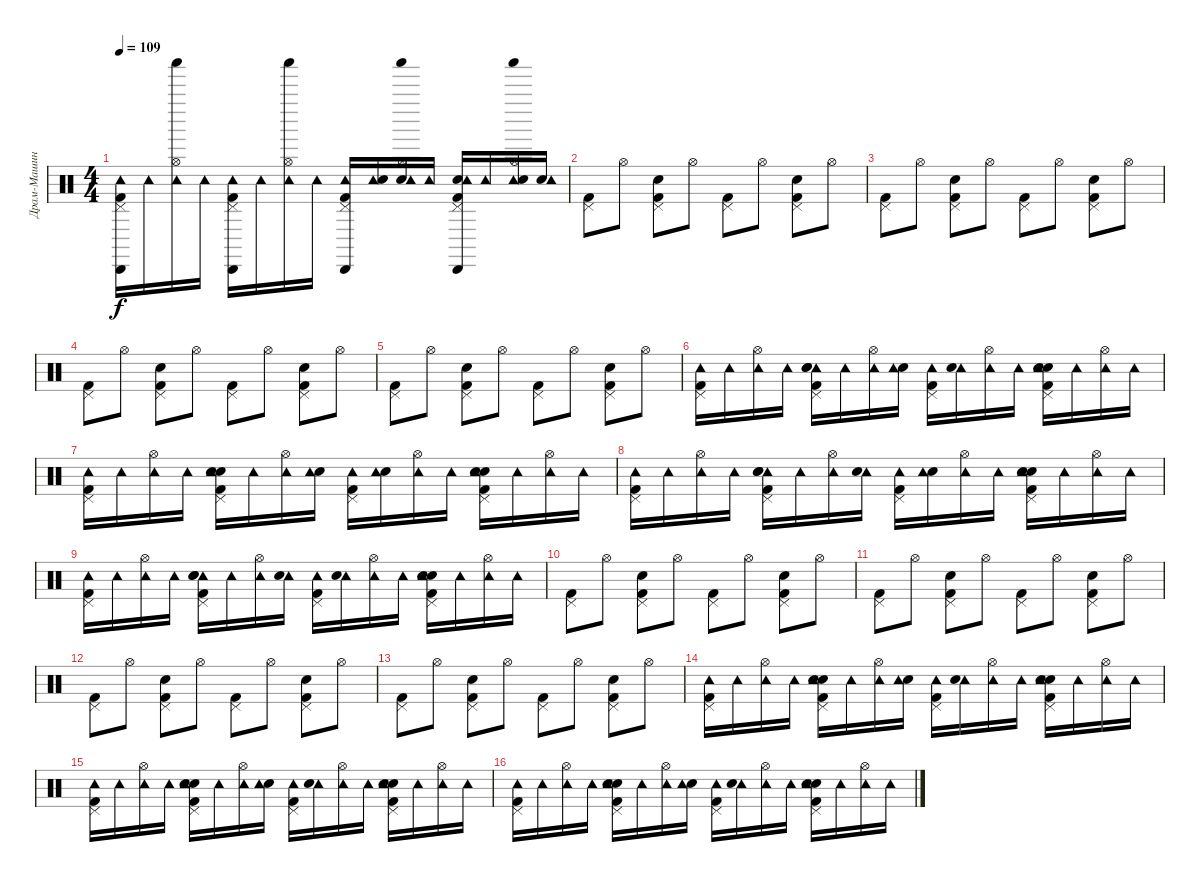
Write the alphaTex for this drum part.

\track ("Драм-Машина" "Драм-Машин") {instrument percussion}
\staff {score}
\articulation defaults
\ts (4 4)
\tempo 109
\clef neutral
\ks c
("Kick (hit) 2" "Cabasa (hit)" "Pedal Hi-Hat (hit)" "Tambourine (hit)").16{dy f} "Tambourine (hit)".16 ("Hi-Hat (open)" "Tambourine (hit)" "Shaker (hit)").16 "Tambourine (hit)".16 ("Pedal Hi-Hat (hit)" "Tambourine (hit)" "Cabasa (hit)" "Kick (hit) 2").16 "Tambourine (hit)".16 ("Hi-Hat (open)" "Tambourine (hit)" "Shaker (hit)").16 "Tambourine (hit)".16 ("Tambourine (hit)" "Pedal Hi-Hat (hit)" "Kick (hit) 2" "Cabasa (hit)").16 ("Tambourine (hit)" "Snare (hit) 2").16 ("Hi-Hat (open)" "Shaker (hit)" "Snare (hit) 2" "Tambourine (hit)").16 "Tambourine (hit)".16 ("Pedal Hi-Hat (hit)" "Snare (hit) 2" "Kick (hit) 2" "Cabasa (hit)" "Tambourine (hit)").16 "Tambourine (hit)".16 ("Tambourine (hit)" "Hi-Hat (open)" "Snare (hit) 2" "Shaker (hit)").16 ("Snare (hit) 2" "Tambourine (hit)").16 |
("Pedal Hi-Hat (hit)" "Kick (hit) 2").8 "Hi-Hat (open)".8 ("Kick (hit) 2" "Pedal Hi-Hat (hit)" "Snare (hit) 2").8 "Hi-Hat (open)".8 ("Kick (hit) 2" "Pedal Hi-Hat (hit)").8 "Hi-Hat (open)".8 ("Kick (hit) 2" "Pedal Hi-Hat (hit)" "Snare (hit) 2").8 "Hi-Hat (open)".8 |
("Pedal Hi-Hat (hit)" "Kick (hit) 2").8 "Hi-Hat (open)".8 ("Kick (hit) 2" "Snare (hit) 2" "Pedal Hi-Hat (hit)").8 "Hi-Hat (open)".8 ("Kick (hit) 2" "Pedal Hi-Hat (hit)").8 "Hi-Hat (open)".8 ("Pedal Hi-Hat (hit)" "Kick (hit) 2" "Snare (hit) 2").8 "Hi-Hat (open)".8 |
("Kick (hit) 2" "Pedal Hi-Hat (hit)").8 "Hi-Hat (open)".8 ("Kick (hit) 2" "Pedal Hi-Hat (hit)" "Snare (hit) 2").8 "Hi-Hat (open)".8 ("Pedal Hi-Hat (hit)" "Kick (hit) 2").8 "Hi-Hat (open)".8 ("Kick (hit) 2" "Pedal Hi-Hat (hit)" "Snare (hit) 2").8 "Hi-Hat (open)".8 |
("Pedal Hi-Hat (hit)" "Kick (hit) 2").8 "Hi-Hat (open)".8 ("Snare (hit) 2" "Pedal Hi-Hat (hit)" "Kick (hit) 2").8 "Hi-Hat (open)".8 ("Pedal Hi-Hat (hit)" "Kick (hit) 2").8 "Hi-Hat (open)".8 ("Pedal Hi-Hat (hit)" "Snare (hit) 2" "Kick (hit) 2").8 "Hi-Hat (open)".8 |
("Pedal Hi-Hat (hit)" "Tambourine (hit)" "Kick (hit) 2").16 "Tambourine (hit)".16 ("Hi-Hat (open)" "Tambourine (hit)").16 "Tambourine (hit)".16 ("Pedal Hi-Hat (hit)" "Kick (hit) 2" "Tambourine (hit)" "Snare (hit) 2" "Electric Snare (hit)").16 "Tambourine (hit)".16 ("Hi-Hat (open)" "Tambourine (hit)").16 ("Electric Snare (hit)" "Tambourine (hit)").16 ("Tambourine (hit)" "Kick (hit) 2" "Pedal Hi-Hat (hit)").16 ("Tambourine (hit)" "Electric Snare (hit)").16 ("Tambourine (hit)" "Hi-Hat (open)").16 "Tambourine (hit)".16 ("Snare (hit) 2" "Kick (hit) 2" "Tambourine (hit)" "Pedal Hi-Hat (hit)" "Electric Snare (hit)").16 "Tambourine (hit)".16 ("Tambourine (hit)" "Hi-Hat (open)").16 "Tambourine (hit)".16 |
("Pedal Hi-Hat (hit)" "Kick (hit) 2" "Tambourine (hit)").16 "Tambourine (hit)".16 ("Tambourine (hit)" "Hi-Hat (open)").16 "Tambourine (hit)".16 ("Snare (hit) 2" "Tambourine (hit)" "Kick (hit) 2" "Electric Snare (hit)" "Pedal Hi-Hat (hit)").16 "Tambourine (hit)".16 ("Hi-Hat (open)" "Tambourine (hit)").16 ("Electric Snare (hit)" "Tambourine (hit)").16 ("Pedal Hi-Hat (hit)" "Tambourine (hit)" "Kick (hit) 2").16 ("Electric Snare (hit)" "Tambourine (hit)").16 ("Tambourine (hit)" "Hi-Hat (open)").16 "Tambourine (hit)".16 ("Kick (hit) 2" "Snare (hit) 2" "Pedal Hi-Hat (hit)" "Electric Snare (hit)" "Tambourine (hit)").16 "Tambourine (hit)".16 ("Tambourine (hit)" "Hi-Hat (open)").16 "Tambourine (hit)".16 |
("Pedal Hi-Hat (hit)" "Tambourine (hit)" "Kick (hit) 2").16 "Tambourine (hit)".16 ("Tambourine (hit)" "Hi-Hat (open)").16 "Tambourine (hit)".16 ("Tambourine (hit)" "Pedal Hi-Hat (hit)" "Electric Snare (hit)" "Kick (hit) 2" "Snare (hit) 2").16 "Tambourine (hit)".16 ("Hi-Hat (open)" "Tambourine (hit)").16 ("Tambourine (hit)" "Electric Snare (hit)").16 ("Tambourine (hit)" "Kick (hit) 2" "Pedal Hi-Hat (hit)").16 ("Electric Snare (hit)" "Tambourine (hit)").16 ("Tambourine (hit)" "Hi-Hat (open)").16 "Tambourine (hit)".16 ("Snare (hit) 2" "Tambourine (hit)" "Electric Snare (hit)" "Pedal Hi-Hat (hit)" "Kick (hit) 2").16 "Tambourine (hit)".16 ("Tambourine (hit)" "Hi-Hat (open)").16 "Tambourine (hit)".16 |
("Pedal Hi-Hat (hit)" "Tambourine (hit)" "Kick (hit) 2").16 "Tambourine (hit)".16 ("Hi-Hat (open)" "Tambourine (hit)").16 "Tambourine (hit)".16 ("Kick (hit) 2" "Tambourine (hit)" "Snare (hit) 2" "Pedal Hi-Hat (hit)" "Electric Snare (hit)").16 "Tambourine (hit)".16 ("Hi-Hat (open)" "Tambourine (hit)").16 ("Tambourine (hit)" "Electric Snare (hit)").16 ("Pedal Hi-Hat (hit)" "Tambourine (hit)" "Kick (hit) 2").16 ("Tambourine (hit)" "Electric Snare (hit)").16 ("Tambourine (hit)" "Hi-Hat (open)").16 "Tambourine (hit)".16 ("Electric Snare (hit)" "Kick (hit) 2" "Pedal Hi-Hat (hit)" "Tambourine (hit)" "Snare (hit) 2").16 "Tambourine (hit)".16 ("Tambourine (hit)" "Hi-Hat (open)").16 "Tambourine (hit)".16 |
("Kick (hit) 2" "Pedal Hi-Hat (hit)").8 "Hi-Hat (open)".8 ("Pedal Hi-Hat (hit)" "Kick (hit) 2" "Snare (hit) 2").8 "Hi-Hat (open)".8 ("Pedal Hi-Hat (hit)" "Kick (hit) 2").8 "Hi-Hat (open)".8 ("Snare (hit) 2" "Pedal Hi-Hat (hit)" "Kick (hit) 2").8 "Hi-Hat (open)".8 |
("Kick (hit) 2" "Pedal Hi-Hat (hit)").8 "Hi-Hat (open)".8 ("Pedal Hi-Hat (hit)" "Kick (hit) 2" "Snare (hit) 2").8 "Hi-Hat (open)".8 ("Kick (hit) 2" "Pedal Hi-Hat (hit)").8 "Hi-Hat (open)".8 ("Kick (hit) 2" "Snare (hit) 2" "Pedal Hi-Hat (hit)").8 "Hi-Hat (open)".8 |
("Kick (hit) 2" "Pedal Hi-Hat (hit)").8 "Hi-Hat (open)".8 ("Snare (hit) 2" "Pedal Hi-Hat (hit)" "Kick (hit) 2").8 "Hi-Hat (open)".8 ("Kick (hit) 2" "Pedal Hi-Hat (hit)").8 "Hi-Hat (open)".8 ("Pedal Hi-Hat (hit)" "Snare (hit) 2" "Kick (hit) 2").8 "Hi-Hat (open)".8 |
("Pedal Hi-Hat (hit)" "Kick (hit) 2").8 "Hi-Hat (open)".8 ("Kick (hit) 2" "Pedal Hi-Hat (hit)" "Snare (hit) 2").8 "Hi-Hat (open)".8 ("Pedal Hi-Hat (hit)" "Kick (hit) 2").8 "Hi-Hat (open)".8 ("Snare (hit) 2" "Pedal Hi-Hat (hit)" "Kick (hit) 2").8 "Hi-Hat (open)".8 |
("Pedal Hi-Hat (hit)" "Tambourine (hit)" "Kick (hit) 2").16 "Tambourine (hit)".16 ("Tambourine (hit)" "Hi-Hat (open)").16 "Tambourine (hit)".16 ("Electric Snare (hit)" "Pedal Hi-Hat (hit)" "Snare (hit) 2" "Tambourine (hit)" "Kick (hit) 2").16 "Tambourine (hit)".16 ("Hi-Hat (open)" "Tambourine (hit)").16 ("Electric Snare (hit)" "Tambourine (hit)").16 ("Tambourine (hit)" "Kick (hit) 2" "Pedal Hi-Hat (hit)").16 ("Tambourine (hit)" "Electric Snare (hit)").16 ("Hi-Hat (open)" "Tambourine (hit)").16 "Tambourine (hit)".16 ("Snare (hit) 2" "Pedal Hi-Hat (hit)" "Electric Snare (hit)" "Tambourine (hit)" "Kick (hit) 2").16 "Tambourine (hit)".16 ("Hi-Hat (open)" "Tambourine (hit)").16 "Tambourine (hit)".16 |
("Pedal Hi-Hat (hit)" "Kick (hit) 2" "Tambourine (hit)").16 "Tambourine (hit)".16 ("Tambourine (hit)" "Hi-Hat (open)").16 "Tambourine (hit)".16 ("Electric Snare (hit)" "Snare (hit) 2" "Tambourine (hit)" "Kick (hit) 2" "Pedal Hi-Hat (hit)").16 "Tambourine (hit)".16 ("Tambourine (hit)" "Hi-Hat (open)").16 ("Electric Snare (hit)" "Tambourine (hit)").16 ("Kick (hit) 2" "Pedal Hi-Hat (hit)" "Tambourine (hit)").16 ("Tambourine (hit)" "Electric Snare (hit)").16 ("Tambourine (hit)" "Hi-Hat (open)").16 "Tambourine (hit)".16 ("Snare (hit) 2" "Kick (hit) 2" "Tambourine (hit)" "Electric Snare (hit)" "Pedal Hi-Hat (hit)").16 "Tambourine (hit)".16 ("Hi-Hat (open)" "Tambourine (hit)").16 "Tambourine (hit)".16 |
("Tambourine (hit)" "Kick (hit) 2" "Pedal Hi-Hat (hit)").16 "Tambourine (hit)".16 ("Tambourine (hit)" "Hi-Hat (open)").16 "Tambourine (hit)".16 ("Electric Snare (hit)" "Kick (hit) 2" "Tambourine (hit)" "Pedal Hi-Hat (hit)" "Snare (hit) 2").16 "Tambourine (hit)".16 ("Tambourine (hit)" "Hi-Hat (open)").16 ("Electric Snare (hit)" "Tambourine (hit)").16 ("Kick (hit) 2" "Pedal Hi-Hat (hit)" "Tambourine (hit)").16 ("Tambourine (hit)" "Electric Snare (hit)").16 ("Tambourine (hit)" "Hi-Hat (open)").16 "Tambourine (hit)".16 ("Kick (hit) 2" "Electric Snare (hit)" "Snare (hit) 2" "Tambourine (hit)" "Pedal Hi-Hat (hit)").16 "Tambourine (hit)".16 ("Tambourine (hit)" "Hi-Hat (open)").16 "Tambourine (hit)".16
